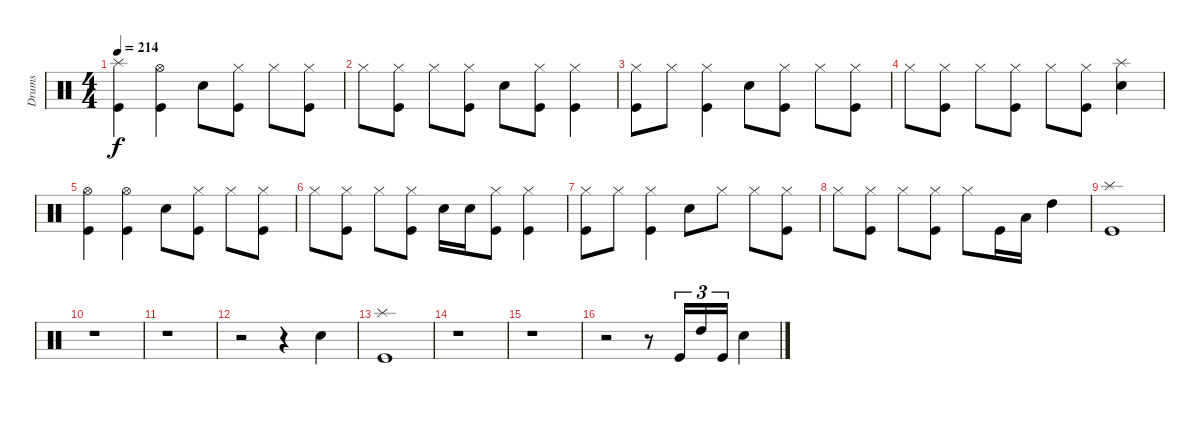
\track ("Drums" "Drums") {instrument percussion}
\staff {score}
\articulation defaults
\ts (4 4)
\tempo 214
\clef neutral
\ks c
("Splash (hit)" "Kick (hit)").4{dy f} ("Hi-Hat (open)" "Kick (hit)").4 "Snare (hit) 2".8 ("Hi-Hat (closed)" "Kick (hit)").8 "Hi-Hat (closed)".8 ("Hi-Hat (closed)" "Kick (hit)").8 |
"Hi-Hat (closed)".8 ("Hi-Hat (closed)" "Kick (hit)").8 "Hi-Hat (closed)".8 ("Hi-Hat (closed)" "Kick (hit)").8 "Snare (hit) 2".8 ("Hi-Hat (closed)" "Kick (hit)").8 ("Hi-Hat (closed)" "Kick (hit)").4 |
("Hi-Hat (closed)" "Kick (hit)").8 "Hi-Hat (closed)".8 ("Hi-Hat (closed)" "Kick (hit)").4 "Snare (hit) 2".8 ("Hi-Hat (closed)" "Kick (hit)").8 "Hi-Hat (closed)".8 ("Hi-Hat (closed)" "Kick (hit)").8 |
"Hi-Hat (closed)".8 ("Hi-Hat (closed)" "Kick (hit)").8 "Hi-Hat (closed)".8 ("Hi-Hat (closed)" "Kick (hit)").8 "Hi-Hat (closed)".8 ("Hi-Hat (closed)" "Kick (hit)").8 ("Splash (hit)" "Snare (hit) 2").4 |
("Hi-Hat (open)" "Kick (hit)").4 ("Hi-Hat (open)" "Kick (hit)").4 "Snare (hit) 2".8 ("Hi-Hat (closed)" "Kick (hit)").8 "Hi-Hat (closed)".8 ("Hi-Hat (closed)" "Kick (hit)").8 |
"Hi-Hat (closed)".8 ("Hi-Hat (closed)" "Kick (hit)").8 "Hi-Hat (closed)".8 ("Hi-Hat (closed)" "Kick (hit)").8 "Snare (hit) 2".16 "Snare (hit) 2".16 ("Hi-Hat (closed)" "Kick (hit)").8 ("Hi-Hat (closed)" "Kick (hit)").4 |
("Hi-Hat (closed)" "Kick (hit)").8 "Hi-Hat (closed)".8 ("Hi-Hat (closed)" "Kick (hit)").4 "Snare (hit) 2".8 "Hi-Hat (closed)".8 "Hi-Hat (closed)".8 ("Hi-Hat (closed)" "Kick (hit)").8 |
"Hi-Hat (closed)".8 ("Hi-Hat (closed)" "Kick (hit)").8 "Hi-Hat (closed)".8 ("Hi-Hat (closed)" "Kick (hit)").8 "Hi-Hat (closed)".8 "Kick (hit)".16 "Low Tom (hit)".16 "High Tom (hit)".4 |
("Splash (hit)" "Kick (hit)").1 |
r.1 |
r.1 |
r.2 r.4 "Snare (hit) 2".4 |
("Splash (hit)" "Kick (hit)").1 |
r.1 |
r.1 |
r.2 r.8 "Kick (hit)".16{tu (3 2)} "High Tom (hit)".16{tu (3 2)} "Kick (hit)".16{tu (3 2)} "Snare (hit) 2".4
